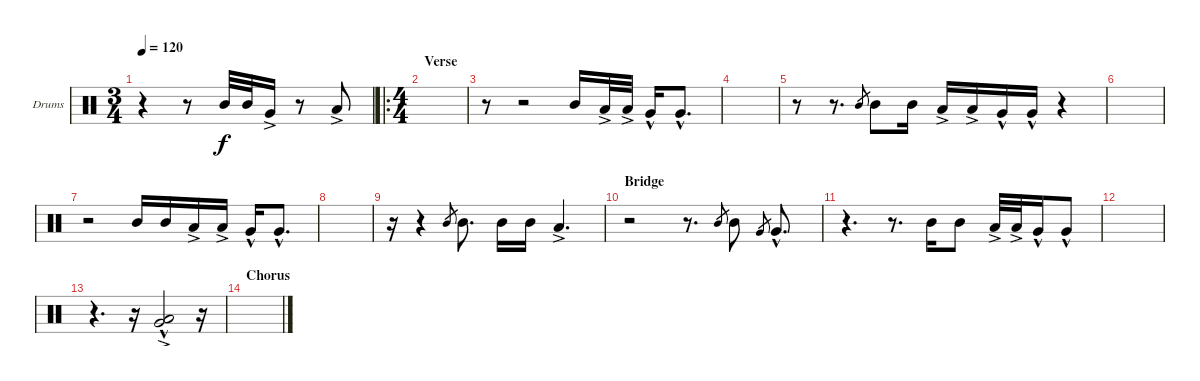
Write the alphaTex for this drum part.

\defaultSystemsLayout 4
\bracketExtendMode groupsimilarinstruments
\firstSystemTrackNameOrientation horizontal
\otherSystemsTrackNameOrientation horizontal
\track ("Drumkit" "Drums") {instrument percussion}
\staff {score}
\articulation defaults
\ts (3 4)
\tempo 120
\clef neutral
\ks c
r.4{dy f} r.8 "Mid Tom (hit)".32 "Mid Tom (hit)".32 "Very Low Tom (hit)"{ac}.16 r.8 "Low Tom (hit)"{ac}.8 |
\ro
\ts (4 4)
\section ("" "Verse")
|
r.8 r.2 "Mid Tom (hit)".16 "Low Tom (hit)"{ac}.32 "Low Tom (hit)"{ac}.32 "Very Low Tom (hit)"{hac}.16 "Very Low Tom (hit)"{hac}.8{d} |
|
r.8 r.8{d} "Mid Tom (hit)".8{gr} "Mid Tom (hit)".8 "Mid Tom (hit)".16 "Low Tom (hit)"{ac}.16 "Low Tom (hit)"{ac}.16 "Very Low Tom (hit)"{hac}.16 "Very Low Tom (hit)"{hac}.16 r.4 |
|
r.2 "Mid Tom (hit)".16 "Mid Tom (hit)".16 "Low Tom (hit)"{ac}.16 "Low Tom (hit)"{ac}.16 "Very Low Tom (hit)"{hac}.16 "Very Low Tom (hit)"{hac}.8{d} |
|
r.16 r.4 "Mid Tom (hit)".8{gr} "Mid Tom (hit)".8{d} "Mid Tom (hit)".16 "Mid Tom (hit)".16 "Low Tom (hit)"{ac}.4{d} |
\section ("" "Bridge")
r.2 r.8{d} "Mid Tom (hit)".8{gr} "Mid Tom (hit)".8 "Very Low Tom (hit)".8{gr} "Very Low Tom (hit)"{hac}.8{d} |
r.4{d} r.8{d} "Mid Tom (hit)".16 "Mid Tom (hit)".8 "Low Tom (hit)"{ac}.32 "Low Tom (hit)"{ac}.32 "Very Low Tom (hit)"{hac}.16 "Very Low Tom (hit)"{hac}.8 |
|
r.4{d} r.16 ("Very Low Tom (hit)"{hac} "Low Tom (hit)"{ac}).2 r.16 |
\section ("" "Chorus")
